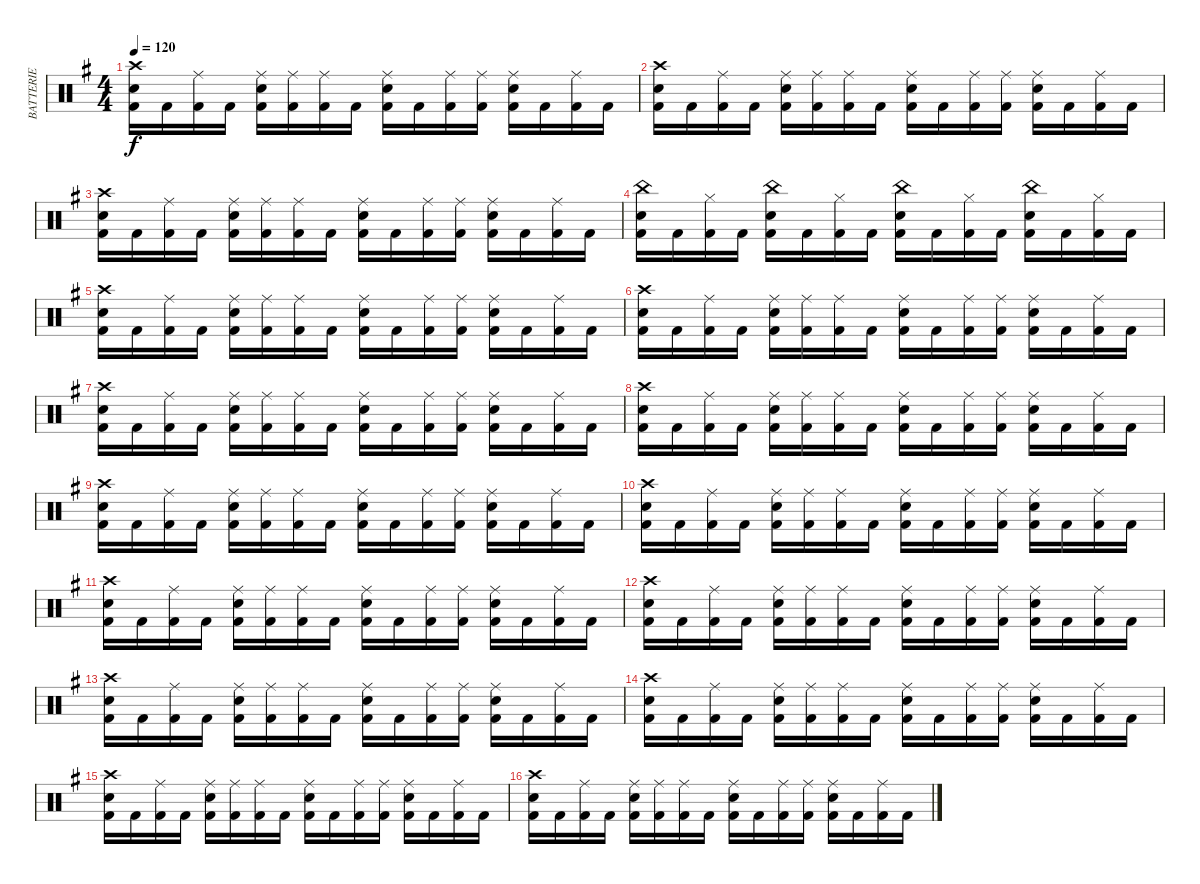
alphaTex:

\track ("BATTERIE" "BATTERIE") {instrument percussion}
\staff {score}
\articulation defaults
\ts (4 4)
\tempo 120
\clef neutral
\ks g
("Crash high (hit)" "Snare (hit) 2" "Kick (hit) 2").16{dy f} "Kick (hit) 2".16 ("Ride (middle)" "Kick (hit) 2").16 "Kick (hit) 2".16 ("Ride (middle)" "Snare (hit) 2" "Kick (hit) 2").16 ("Ride (middle)" "Kick (hit) 2").16 ("Ride (middle)" "Kick (hit) 2").16 "Kick (hit) 2".16 ("Ride (middle)" "Snare (hit) 2" "Kick (hit) 2").16 "Kick (hit) 2".16 ("Ride (middle)" "Kick (hit) 2").16 ("Ride (middle)" "Kick (hit) 2").16 ("Ride (middle)" "Snare (hit) 2" "Kick (hit) 2").16 "Kick (hit) 2".16 ("Ride (middle)" "Kick (hit) 2").16 "Kick (hit) 2".16 |
("Crash high (hit)" "Snare (hit) 2" "Kick (hit) 2").16 "Kick (hit) 2".16 ("Ride (middle)" "Kick (hit) 2").16 "Kick (hit) 2".16 ("Ride (middle)" "Snare (hit) 2" "Kick (hit) 2").16 ("Ride (middle)" "Kick (hit) 2").16 ("Ride (middle)" "Kick (hit) 2").16 "Kick (hit) 2".16 ("Ride (middle)" "Snare (hit) 2" "Kick (hit) 2").16 "Kick (hit) 2".16 ("Ride (middle)" "Kick (hit) 2").16 ("Ride (middle)" "Kick (hit) 2").16 ("Ride (middle)" "Snare (hit) 2" "Kick (hit) 2").16 "Kick (hit) 2".16 ("Ride (middle)" "Kick (hit) 2").16 "Kick (hit) 2".16 |
("Crash high (hit)" "Snare (hit) 2" "Kick (hit) 2").16 "Kick (hit) 2".16 ("Ride (middle)" "Kick (hit) 2").16 "Kick (hit) 2".16 ("Ride (middle)" "Snare (hit) 2" "Kick (hit) 2").16 ("Ride (middle)" "Kick (hit) 2").16 ("Ride (middle)" "Kick (hit) 2").16 "Kick (hit) 2".16 ("Ride (middle)" "Snare (hit) 2" "Kick (hit) 2").16 "Kick (hit) 2".16 ("Ride (middle)" "Kick (hit) 2").16 ("Ride (middle)" "Kick (hit) 2").16 ("Ride (middle)" "Snare (hit) 2" "Kick (hit) 2").16 "Kick (hit) 2".16 ("Ride (middle)" "Kick (hit) 2").16 "Kick (hit) 2".16 |
("China (hit)" "Snare (hit) 2" "Kick (hit) 2").16 "Kick (hit) 2".16 ("Hi-Hat (closed)" "Kick (hit) 2").16 "Kick (hit) 2".16 ("China (hit)" "Snare (hit) 2" "Kick (hit) 2").16 "Kick (hit) 2".16 ("Hi-Hat (closed)" "Kick (hit) 2").16 "Kick (hit) 2".16 ("China (hit)" "Snare (hit) 2" "Kick (hit) 2").16 "Kick (hit) 2".16 ("Hi-Hat (closed)" "Kick (hit) 2").16 "Kick (hit) 2".16 ("China (hit)" "Snare (hit) 2" "Kick (hit) 2").16 "Kick (hit) 2".16 ("Hi-Hat (closed)" "Kick (hit) 2").16 "Kick (hit) 2".16 |
("Crash high (hit)" "Snare (hit) 2" "Kick (hit) 2").16 "Kick (hit) 2".16 ("Ride (middle)" "Kick (hit) 2").16 "Kick (hit) 2".16 ("Ride (middle)" "Snare (hit) 2" "Kick (hit) 2").16 ("Ride (middle)" "Kick (hit) 2").16 ("Ride (middle)" "Kick (hit) 2").16 "Kick (hit) 2".16 ("Ride (middle)" "Snare (hit) 2" "Kick (hit) 2").16 "Kick (hit) 2".16 ("Ride (middle)" "Kick (hit) 2").16 ("Ride (middle)" "Kick (hit) 2").16 ("Ride (middle)" "Snare (hit) 2" "Kick (hit) 2").16 "Kick (hit) 2".16 ("Ride (middle)" "Kick (hit) 2").16 "Kick (hit) 2".16 |
("Crash high (hit)" "Snare (hit) 2" "Kick (hit) 2").16 "Kick (hit) 2".16 ("Ride (middle)" "Kick (hit) 2").16 "Kick (hit) 2".16 ("Ride (middle)" "Snare (hit) 2" "Kick (hit) 2").16 ("Ride (middle)" "Kick (hit) 2").16 ("Ride (middle)" "Kick (hit) 2").16 "Kick (hit) 2".16 ("Ride (middle)" "Snare (hit) 2" "Kick (hit) 2").16 "Kick (hit) 2".16 ("Ride (middle)" "Kick (hit) 2").16 ("Ride (middle)" "Kick (hit) 2").16 ("Ride (middle)" "Snare (hit) 2" "Kick (hit) 2").16 "Kick (hit) 2".16 ("Ride (middle)" "Kick (hit) 2").16 "Kick (hit) 2".16 |
("Crash high (hit)" "Snare (hit) 2" "Kick (hit) 2").16 "Kick (hit) 2".16 ("Ride (middle)" "Kick (hit) 2").16 "Kick (hit) 2".16 ("Ride (middle)" "Snare (hit) 2" "Kick (hit) 2").16 ("Ride (middle)" "Kick (hit) 2").16 ("Ride (middle)" "Kick (hit) 2").16 "Kick (hit) 2".16 ("Ride (middle)" "Snare (hit) 2" "Kick (hit) 2").16 "Kick (hit) 2".16 ("Ride (middle)" "Kick (hit) 2").16 ("Ride (middle)" "Kick (hit) 2").16 ("Ride (middle)" "Snare (hit) 2" "Kick (hit) 2").16 "Kick (hit) 2".16 ("Ride (middle)" "Kick (hit) 2").16 "Kick (hit) 2".16 |
("Crash high (hit)" "Snare (hit) 2" "Kick (hit) 2").16 "Kick (hit) 2".16 ("Ride (middle)" "Kick (hit) 2").16 "Kick (hit) 2".16 ("Ride (middle)" "Snare (hit) 2" "Kick (hit) 2").16 ("Ride (middle)" "Kick (hit) 2").16 ("Ride (middle)" "Kick (hit) 2").16 "Kick (hit) 2".16 ("Ride (middle)" "Snare (hit) 2" "Kick (hit) 2").16 "Kick (hit) 2".16 ("Ride (middle)" "Kick (hit) 2").16 ("Ride (middle)" "Kick (hit) 2").16 ("Ride (middle)" "Snare (hit) 2" "Kick (hit) 2").16 "Kick (hit) 2".16 ("Ride (middle)" "Kick (hit) 2").16 "Kick (hit) 2".16 |
("Crash high (hit)" "Snare (hit) 2" "Kick (hit) 2").16 "Kick (hit) 2".16 ("Ride (middle)" "Kick (hit) 2").16 "Kick (hit) 2".16 ("Ride (middle)" "Snare (hit) 2" "Kick (hit) 2").16 ("Ride (middle)" "Kick (hit) 2").16 ("Ride (middle)" "Kick (hit) 2").16 "Kick (hit) 2".16 ("Ride (middle)" "Snare (hit) 2" "Kick (hit) 2").16 "Kick (hit) 2".16 ("Ride (middle)" "Kick (hit) 2").16 ("Ride (middle)" "Kick (hit) 2").16 ("Ride (middle)" "Snare (hit) 2" "Kick (hit) 2").16 "Kick (hit) 2".16 ("Ride (middle)" "Kick (hit) 2").16 "Kick (hit) 2".16 |
("Crash high (hit)" "Snare (hit) 2" "Kick (hit) 2").16 "Kick (hit) 2".16 ("Ride (middle)" "Kick (hit) 2").16 "Kick (hit) 2".16 ("Ride (middle)" "Snare (hit) 2" "Kick (hit) 2").16 ("Ride (middle)" "Kick (hit) 2").16 ("Ride (middle)" "Kick (hit) 2").16 "Kick (hit) 2".16 ("Ride (middle)" "Snare (hit) 2" "Kick (hit) 2").16 "Kick (hit) 2".16 ("Ride (middle)" "Kick (hit) 2").16 ("Ride (middle)" "Kick (hit) 2").16 ("Ride (middle)" "Snare (hit) 2" "Kick (hit) 2").16 "Kick (hit) 2".16 ("Ride (middle)" "Kick (hit) 2").16 "Kick (hit) 2".16 |
("Crash high (hit)" "Snare (hit) 2" "Kick (hit) 2").16 "Kick (hit) 2".16 ("Ride (middle)" "Kick (hit) 2").16 "Kick (hit) 2".16 ("Ride (middle)" "Snare (hit) 2" "Kick (hit) 2").16 ("Ride (middle)" "Kick (hit) 2").16 ("Ride (middle)" "Kick (hit) 2").16 "Kick (hit) 2".16 ("Ride (middle)" "Snare (hit) 2" "Kick (hit) 2").16 "Kick (hit) 2".16 ("Ride (middle)" "Kick (hit) 2").16 ("Ride (middle)" "Kick (hit) 2").16 ("Ride (middle)" "Snare (hit) 2" "Kick (hit) 2").16 "Kick (hit) 2".16 ("Ride (middle)" "Kick (hit) 2").16 "Kick (hit) 2".16 |
("Crash high (hit)" "Snare (hit) 2" "Kick (hit) 2").16 "Kick (hit) 2".16 ("Ride (middle)" "Kick (hit) 2").16 "Kick (hit) 2".16 ("Ride (middle)" "Snare (hit) 2" "Kick (hit) 2").16 ("Ride (middle)" "Kick (hit) 2").16 ("Ride (middle)" "Kick (hit) 2").16 "Kick (hit) 2".16 ("Ride (middle)" "Snare (hit) 2" "Kick (hit) 2").16 "Kick (hit) 2".16 ("Ride (middle)" "Kick (hit) 2").16 ("Ride (middle)" "Kick (hit) 2").16 ("Ride (middle)" "Snare (hit) 2" "Kick (hit) 2").16 "Kick (hit) 2".16 ("Ride (middle)" "Kick (hit) 2").16 "Kick (hit) 2".16 |
("Crash high (hit)" "Snare (hit) 2" "Kick (hit) 2").16 "Kick (hit) 2".16 ("Ride (middle)" "Kick (hit) 2").16 "Kick (hit) 2".16 ("Ride (middle)" "Snare (hit) 2" "Kick (hit) 2").16 ("Ride (middle)" "Kick (hit) 2").16 ("Ride (middle)" "Kick (hit) 2").16 "Kick (hit) 2".16 ("Ride (middle)" "Snare (hit) 2" "Kick (hit) 2").16 "Kick (hit) 2".16 ("Ride (middle)" "Kick (hit) 2").16 ("Ride (middle)" "Kick (hit) 2").16 ("Ride (middle)" "Snare (hit) 2" "Kick (hit) 2").16 "Kick (hit) 2".16 ("Ride (middle)" "Kick (hit) 2").16 "Kick (hit) 2".16 |
("Crash high (hit)" "Snare (hit) 2" "Kick (hit) 2").16 "Kick (hit) 2".16 ("Ride (middle)" "Kick (hit) 2").16 "Kick (hit) 2".16 ("Ride (middle)" "Snare (hit) 2" "Kick (hit) 2").16 ("Ride (middle)" "Kick (hit) 2").16 ("Ride (middle)" "Kick (hit) 2").16 "Kick (hit) 2".16 ("Ride (middle)" "Snare (hit) 2" "Kick (hit) 2").16 "Kick (hit) 2".16 ("Ride (middle)" "Kick (hit) 2").16 ("Ride (middle)" "Kick (hit) 2").16 ("Ride (middle)" "Snare (hit) 2" "Kick (hit) 2").16 "Kick (hit) 2".16 ("Ride (middle)" "Kick (hit) 2").16 "Kick (hit) 2".16 |
("Crash high (hit)" "Snare (hit) 2" "Kick (hit) 2").16 "Kick (hit) 2".16 ("Ride (middle)" "Kick (hit) 2").16 "Kick (hit) 2".16 ("Ride (middle)" "Snare (hit) 2" "Kick (hit) 2").16 ("Ride (middle)" "Kick (hit) 2").16 ("Ride (middle)" "Kick (hit) 2").16 "Kick (hit) 2".16 ("Ride (middle)" "Snare (hit) 2" "Kick (hit) 2").16 "Kick (hit) 2".16 ("Ride (middle)" "Kick (hit) 2").16 ("Ride (middle)" "Kick (hit) 2").16 ("Ride (middle)" "Snare (hit) 2" "Kick (hit) 2").16 "Kick (hit) 2".16 ("Ride (middle)" "Kick (hit) 2").16 "Kick (hit) 2".16 |
("Crash high (hit)" "Snare (hit) 2" "Kick (hit) 2").16 "Kick (hit) 2".16 ("Ride (middle)" "Kick (hit) 2").16 "Kick (hit) 2".16 ("Ride (middle)" "Snare (hit) 2" "Kick (hit) 2").16 ("Ride (middle)" "Kick (hit) 2").16 ("Ride (middle)" "Kick (hit) 2").16 "Kick (hit) 2".16 ("Ride (middle)" "Snare (hit) 2" "Kick (hit) 2").16 "Kick (hit) 2".16 ("Ride (middle)" "Kick (hit) 2").16 ("Ride (middle)" "Kick (hit) 2").16 ("Ride (middle)" "Snare (hit) 2" "Kick (hit) 2").16 "Kick (hit) 2".16 ("Ride (middle)" "Kick (hit) 2").16 "Kick (hit) 2".16
